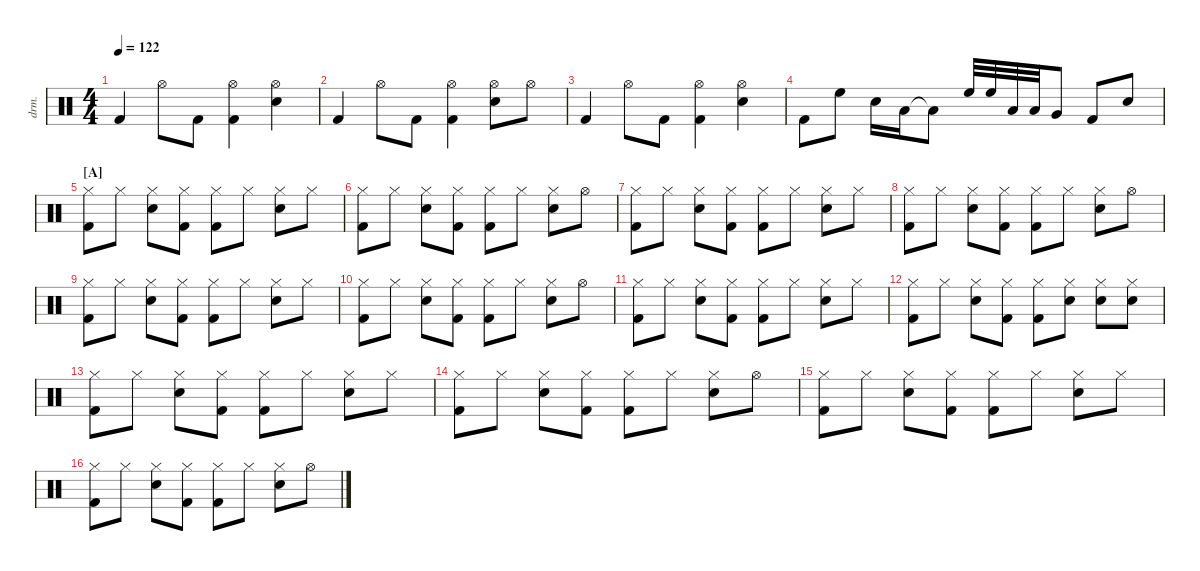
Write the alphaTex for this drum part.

\defaultSystemsLayout 4
\hideDynamics
\bracketExtendMode nobrackets
\track ("Drumkit" "drm.") {defaultSystemsLayout 4 instrument percussion}
\staff {score}
\articulation defaults
\ts (4 4)
\tempo 122
\clef neutral
\ks c "Kick (hit) 2".4{dy f beam Up} "Hi-Hat (open)".8{beam Down} "Kick (hit) 2".8{beam Down}
("Hi-Hat (open)" "Kick (hit) 2").4{beam Down} ("Hi-Hat (open)" "Snare (hit) 2").4{beam Down} |
"Kick (hit) 2".4{beam Up} "Hi-Hat (open)".8{beam Down} "Kick (hit) 2".8{beam Down} ("Hi-Hat (open)" "Kick (hit) 2").4{beam Down} ("Hi-Hat (open)" "Snare (hit) 2").8{beam Down} "Hi-Hat (open)".8{beam Down} |
"Kick (hit) 2".4{beam Up} "Hi-Hat (open)".8{beam Down} "Kick (hit) 2".8{beam Down} ("Hi-Hat (open)" "Kick (hit) 2").4{beam Down} ("Hi-Hat (open)" "Snare (hit) 2").4{beam Down} |
"Kick (hit) 2".8{beam Down} "High Floor Tom (hit)".8{beam Down} "Snare (hit) 2".16{beam Down} "Low Tom (hit)".16{beam Down} "Low Tom (hit)"{t}.8{beam Down} "High Floor Tom (hit)".32{beam Up} "High Floor Tom (hit)".32{beam Up} "Low Tom (hit)".32{beam Up} "Low Tom (hit)".32{beam Up} "Very Low Tom (hit)".8{beam Up} "Kick (hit) 2".8{beam Up} "Snare (hit) 2".8{beam Up} |
\section ("A" "")
("Hi-Hat (closed)" "Kick (hit) 2").8{beam Down} "Hi-Hat (closed)".8{beam Down} ("Hi-Hat (closed)" "Snare (hit) 2").8{beam Down} ("Hi-Hat (closed)" "Kick (hit) 2").8{beam Down} ("Hi-Hat (closed)" "Kick (hit) 2").8{beam Down} "Hi-Hat (closed)".8{beam Down} ("Hi-Hat (closed)" "Snare (hit) 2").8{beam Down} "Hi-Hat (closed)".8{beam Down} |
("Hi-Hat (closed)" "Kick (hit) 2").8{beam Down} "Hi-Hat (closed)".8{beam Down} ("Hi-Hat (closed)" "Snare (hit) 2").8{beam Down} ("Hi-Hat (closed)" "Kick (hit) 2").8{beam Down} ("Hi-Hat (closed)" "Kick (hit) 2").8{beam Down} "Hi-Hat (closed)".8{beam Down} ("Hi-Hat (closed)" "Snare (hit) 2").8{beam Down} "Hi-Hat (open)".8{beam Down} |
("Hi-Hat (closed)" "Kick (hit) 2").8{beam Down} "Hi-Hat (closed)".8{beam Down} ("Hi-Hat (closed)" "Snare (hit) 2").8{beam Down} ("Hi-Hat (closed)" "Kick (hit) 2").8{beam Down} ("Hi-Hat (closed)" "Kick (hit) 2").8{beam Down} "Hi-Hat (closed)".8{beam Down} ("Hi-Hat (closed)" "Snare (hit) 2").8{beam Down} "Hi-Hat (closed)".8{beam Down} |
("Hi-Hat (closed)" "Kick (hit) 2").8{beam Down} "Hi-Hat (closed)".8{beam Down} ("Hi-Hat (closed)" "Snare (hit) 2").8{beam Down} ("Hi-Hat (closed)" "Kick (hit) 2").8{beam Down} ("Hi-Hat (closed)" "Kick (hit) 2").8{beam Down} "Hi-Hat (closed)".8{beam Down} ("Hi-Hat (closed)" "Snare (hit) 2").8{beam Down} "Hi-Hat (open)".8{beam Down} |
("Hi-Hat (closed)" "Kick (hit) 2").8{beam Down} "Hi-Hat (closed)".8{beam Down} ("Hi-Hat (closed)" "Snare (hit) 2").8{beam Down} ("Hi-Hat (closed)" "Kick (hit) 2").8{beam Down} ("Hi-Hat (closed)" "Kick (hit) 2").8{beam Down} "Hi-Hat (closed)".8{beam Down} ("Hi-Hat (closed)" "Snare (hit) 2").8{beam Down} "Hi-Hat (closed)".8{beam Down} |
("Hi-Hat (closed)" "Kick (hit) 2").8{beam Down} "Hi-Hat (closed)".8{beam Down} ("Hi-Hat (closed)" "Snare (hit) 2").8{beam Down} ("Hi-Hat (closed)" "Kick (hit) 2").8{beam Down} ("Hi-Hat (closed)" "Kick (hit) 2").8{beam Down} "Hi-Hat (closed)".8{beam Down} ("Hi-Hat (closed)" "Snare (hit) 2").8{beam Down} "Hi-Hat (open)".8{beam Down} |
("Hi-Hat (closed)" "Kick (hit) 2").8{beam Down} "Hi-Hat (closed)".8{beam Down} ("Hi-Hat (closed)" "Snare (hit) 2").8{beam Down} ("Hi-Hat (closed)" "Kick (hit) 2").8{beam Down} ("Hi-Hat (closed)" "Kick (hit) 2").8{beam Down} "Hi-Hat (closed)".8{beam Down} ("Hi-Hat (closed)" "Snare (hit) 2").8{beam Down} "Hi-Hat (closed)".8{beam Down} |
("Hi-Hat (closed)" "Kick (hit) 2").8{beam Down} "Hi-Hat (closed)".8{beam Down} ("Hi-Hat (closed)" "Snare (hit) 2").8{beam Down} ("Hi-Hat (closed)" "Kick (hit) 2").8{beam Down} ("Hi-Hat (closed)" "Kick (hit) 2").8{beam Down} ("Hi-Hat (closed)" "Snare (hit) 2").8{beam Down} ("Hi-Hat (closed)" "Snare (hit) 2").8{beam Down} ("Hi-Hat (closed)" "Snare (hit) 2").8{beam Down} |
("Hi-Hat (closed)" "Kick (hit) 2").8{beam Down} "Hi-Hat (closed)".8{beam Down} ("Hi-Hat (closed)" "Snare (hit) 2").8{beam Down} ("Hi-Hat (closed)" "Kick (hit) 2").8{beam Down} ("Hi-Hat (closed)" "Kick (hit) 2").8{beam Down} "Hi-Hat (closed)".8{beam Down} ("Hi-Hat (closed)" "Snare (hit) 2").8{beam Down} "Hi-Hat (closed)".8{beam Down} |
("Hi-Hat (closed)" "Kick (hit) 2").8{beam Down} "Hi-Hat (closed)".8{beam Down} ("Hi-Hat (closed)" "Snare (hit) 2").8{beam Down} ("Hi-Hat (closed)" "Kick (hit) 2").8{beam Down} ("Hi-Hat (closed)" "Kick (hit) 2").8{beam Down} "Hi-Hat (closed)".8{beam Down} ("Hi-Hat (closed)" "Snare (hit) 2").8{beam Down} "Hi-Hat (open)".8{beam Down} |
("Hi-Hat (closed)" "Kick (hit) 2").8{beam Down} "Hi-Hat (closed)".8{beam Down} ("Hi-Hat (closed)" "Snare (hit) 2").8{beam Down} ("Hi-Hat (closed)" "Kick (hit) 2").8{beam Down} ("Hi-Hat (closed)" "Kick (hit) 2").8{beam Down} "Hi-Hat (closed)".8{beam Down} ("Hi-Hat (closed)" "Snare (hit) 2").8{beam Down} "Hi-Hat (closed)".8{beam Down} |
("Hi-Hat (closed)" "Kick (hit) 2").8{beam Down} "Hi-Hat (closed)".8{beam Down} ("Hi-Hat (closed)" "Snare (hit) 2").8{beam Down} ("Hi-Hat (closed)" "Kick (hit) 2").8{beam Down} ("Hi-Hat (closed)" "Kick (hit) 2").8{beam Down} "Hi-Hat (closed)".8{beam Down} ("Hi-Hat (closed)" "Snare (hit) 2").8{beam Down} "Hi-Hat (open)".8{beam Down}
